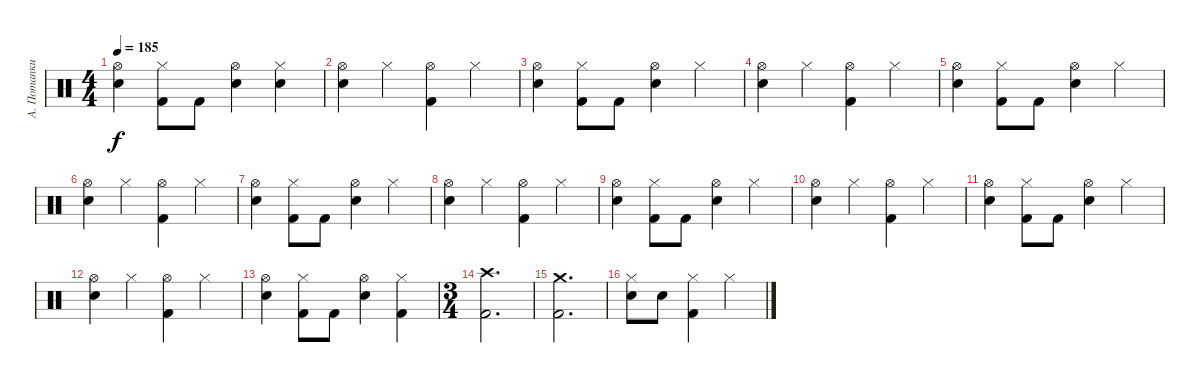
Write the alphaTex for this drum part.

\track ("А. Потапкин" "А. Потапки") {instrument percussion}
\staff {score}
\articulation defaults
\ts (4 4)
\tempo 185
\clef neutral
\ks c
("Hi-Hat (open)" "Snare (hit) 2").4{dy f} ("Hi-Hat (closed)" "Kick (hit) 2").8 "Kick (hit) 2".8 ("Hi-Hat (open)" "Snare (hit) 2").4 ("Hi-Hat (closed)" "Snare (hit) 2").4 |
("Hi-Hat (open)" "Snare (hit) 2").4 "Hi-Hat (closed)".4 ("Hi-Hat (open)" "Kick (hit) 2").4 "Hi-Hat (closed)".4 |
("Hi-Hat (open)" "Snare (hit) 2").4 ("Hi-Hat (closed)" "Kick (hit) 2").8 "Kick (hit) 2".8 ("Hi-Hat (open)" "Snare (hit) 2").4 "Hi-Hat (closed)".4 |
("Hi-Hat (open)" "Snare (hit) 2").4 "Hi-Hat (closed)".4 ("Hi-Hat (open)" "Kick (hit) 2").4 "Hi-Hat (closed)".4 |
("Hi-Hat (open)" "Snare (hit) 2").4 ("Hi-Hat (closed)" "Kick (hit) 2").8 "Kick (hit) 2".8 ("Hi-Hat (open)" "Snare (hit) 2").4 "Hi-Hat (closed)".4 |
("Hi-Hat (open)" "Snare (hit) 2").4 "Hi-Hat (closed)".4 ("Hi-Hat (open)" "Kick (hit) 2").4 "Hi-Hat (closed)".4 |
("Hi-Hat (open)" "Snare (hit) 2").4 ("Hi-Hat (closed)" "Kick (hit) 2").8 "Kick (hit) 2".8 ("Hi-Hat (open)" "Snare (hit) 2").4 "Hi-Hat (closed)".4 |
("Hi-Hat (open)" "Snare (hit) 2").4 "Hi-Hat (closed)".4 ("Hi-Hat (open)" "Kick (hit) 2").4 "Hi-Hat (closed)".4 |
("Hi-Hat (open)" "Snare (hit) 2").4 ("Hi-Hat (closed)" "Kick (hit) 2").8 "Kick (hit) 2".8 ("Hi-Hat (open)" "Snare (hit) 2").4 "Hi-Hat (closed)".4 |
("Hi-Hat (open)" "Snare (hit) 2").4 "Hi-Hat (closed)".4 ("Hi-Hat (open)" "Kick (hit) 2").4 "Hi-Hat (closed)".4 |
("Hi-Hat (open)" "Snare (hit) 2").4 ("Hi-Hat (closed)" "Kick (hit) 2").8 "Kick (hit) 2".8 ("Hi-Hat (open)" "Snare (hit) 2").4 "Hi-Hat (closed)".4 |
("Hi-Hat (open)" "Snare (hit) 2").4 "Hi-Hat (closed)".4 ("Hi-Hat (open)" "Kick (hit) 2").4 "Hi-Hat (closed)".4 |
("Hi-Hat (open)" "Snare (hit) 2").4 ("Hi-Hat (closed)" "Kick (hit) 2").8 "Kick (hit) 2".8 ("Hi-Hat (open)" "Snare (hit) 2").4 ("Hi-Hat (closed)" "Kick (hit) 2").4 |
\ts (3 4)
("Crash high (hit)" "Kick (hit) 2").2{d} |
("Crash medium (hit)" "Kick (hit) 2").2{d} |
("Hi-Hat (closed)" "Snare (hit) 2").8 "Snare (hit) 2".8 ("Hi-Hat (closed)" "Kick (hit) 2").4 "Hi-Hat (closed)".4
